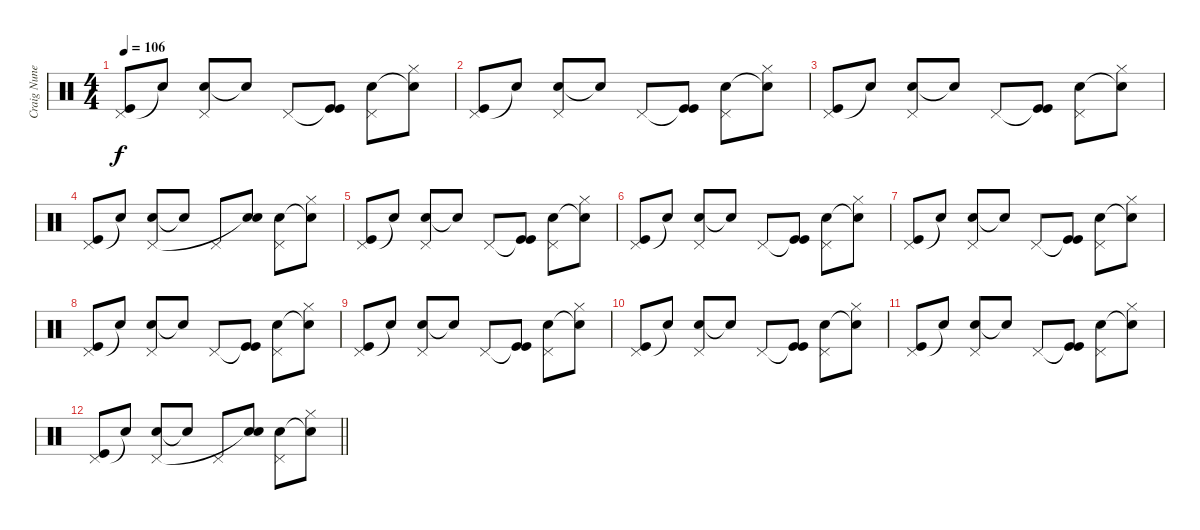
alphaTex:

\track ("Craig Nunemacher" "Craig Nune") {instrument percussion}
\staff {score}
\articulation defaults
\ts (4 4)
\tempo 106
\clef neutral
\ks c
("Pedal Hi-Hat (hit)" "Kick (hit)").8{dy f} "Snare (hit)"{t}.8 ("Snare (hit) 2" "Pedal Hi-Hat (hit)").8 "Snare (hit)"{t}.8 "Pedal Hi-Hat (hit)".8 ("Kick (hit)"{t} "Kick (hit)").8 ("Snare (hit) 2" "Pedal Hi-Hat (hit)").8 ("Snare (hit)"{t} "Hi-Hat (closed)").8 |
("Pedal Hi-Hat (hit)" "Kick (hit)").8 "Snare (hit)"{t}.8 ("Snare (hit) 2" "Pedal Hi-Hat (hit)").8 "Snare (hit)"{t}.8 "Pedal Hi-Hat (hit)".8 ("Kick (hit)"{t} "Kick (hit)").8 ("Snare (hit) 2" "Pedal Hi-Hat (hit)").8 ("Snare (hit)"{t} "Hi-Hat (closed)").8 |
("Pedal Hi-Hat (hit)" "Kick (hit)").8 "Snare (hit)"{t}.8 ("Snare (hit) 2" "Pedal Hi-Hat (hit)").8 "Snare (hit)"{t}.8 "Pedal Hi-Hat (hit)".8 ("Kick (hit)"{t} "Kick (hit)").8 ("Snare (hit) 2" "Pedal Hi-Hat (hit)").8 ("Snare (hit)"{t} "Hi-Hat (closed)").8 |
("Pedal Hi-Hat (hit)" "Kick (hit)").8 "Snare (hit)"{t}.8 ("Electric Snare (hit)" "Pedal Hi-Hat (hit)").8 "Snare (hit)"{t}.8 "Pedal Hi-Hat (hit)".8 ("Snare (hit) 2" "Snare (hit)"{t}).8 ("Snare (hit) 2" "Pedal Hi-Hat (hit)").8 ("Snare (hit)"{t} "Hi-Hat (closed)").8 |
("Pedal Hi-Hat (hit)" "Kick (hit)").8 "Snare (hit)"{t}.8 ("Snare (hit) 2" "Pedal Hi-Hat (hit)").8 "Snare (hit)"{t}.8 "Pedal Hi-Hat (hit)".8 ("Kick (hit)"{t} "Kick (hit)").8 ("Snare (hit) 2" "Pedal Hi-Hat (hit)").8 ("Snare (hit)"{t} "Hi-Hat (closed)").8 |
("Pedal Hi-Hat (hit)" "Kick (hit)").8 "Snare (hit)"{t}.8 ("Snare (hit) 2" "Pedal Hi-Hat (hit)").8 "Snare (hit)"{t}.8 "Pedal Hi-Hat (hit)".8 ("Kick (hit)"{t} "Kick (hit)").8 ("Snare (hit) 2" "Pedal Hi-Hat (hit)").8 ("Snare (hit)"{t} "Hi-Hat (closed)").8 |
("Pedal Hi-Hat (hit)" "Kick (hit)").8 "Snare (hit)"{t}.8 ("Snare (hit) 2" "Pedal Hi-Hat (hit)").8 "Snare (hit)"{t}.8 "Pedal Hi-Hat (hit)".8 ("Kick (hit)"{t} "Kick (hit)").8 ("Snare (hit) 2" "Pedal Hi-Hat (hit)").8 ("Snare (hit)"{t} "Hi-Hat (closed)").8 |
("Pedal Hi-Hat (hit)" "Kick (hit)").8 "Snare (hit)"{t}.8 ("Snare (hit) 2" "Pedal Hi-Hat (hit)").8 "Snare (hit)"{t}.8 "Pedal Hi-Hat (hit)".8 ("Kick (hit)"{t} "Kick (hit)").8 ("Snare (hit) 2" "Pedal Hi-Hat (hit)").8 ("Snare (hit)"{t} "Hi-Hat (closed)").8 |
("Pedal Hi-Hat (hit)" "Kick (hit)").8 "Snare (hit)"{t}.8 ("Snare (hit) 2" "Pedal Hi-Hat (hit)").8 "Snare (hit)"{t}.8 "Pedal Hi-Hat (hit)".8 ("Kick (hit)"{t} "Kick (hit)").8 ("Snare (hit) 2" "Pedal Hi-Hat (hit)").8 ("Snare (hit)"{t} "Hi-Hat (closed)").8 |
("Pedal Hi-Hat (hit)" "Kick (hit)").8 "Snare (hit)"{t}.8 ("Snare (hit) 2" "Pedal Hi-Hat (hit)").8 "Snare (hit)"{t}.8 "Pedal Hi-Hat (hit)".8 ("Kick (hit)"{t} "Kick (hit)").8 ("Snare (hit) 2" "Pedal Hi-Hat (hit)").8 ("Snare (hit)"{t} "Hi-Hat (closed)").8 |
("Pedal Hi-Hat (hit)" "Kick (hit)").8 "Snare (hit)"{t}.8 ("Snare (hit) 2" "Pedal Hi-Hat (hit)").8 "Snare (hit)"{t}.8 "Pedal Hi-Hat (hit)".8 ("Kick (hit)"{t} "Kick (hit)").8 ("Snare (hit) 2" "Pedal Hi-Hat (hit)").8 ("Snare (hit)"{t} "Hi-Hat (closed)").8 |
\barLineRight lightlight
("Pedal Hi-Hat (hit)" "Kick (hit)").8 "Snare (hit)"{t}.8 ("Electric Snare (hit)" "Pedal Hi-Hat (hit)").8 "Snare (hit)"{t}.8 "Pedal Hi-Hat (hit)".8 ("Snare (hit) 2" "Snare (hit)"{t}).8 ("Snare (hit) 2" "Pedal Hi-Hat (hit)").8 ("Snare (hit)"{t} "Hi-Hat (closed)").8
